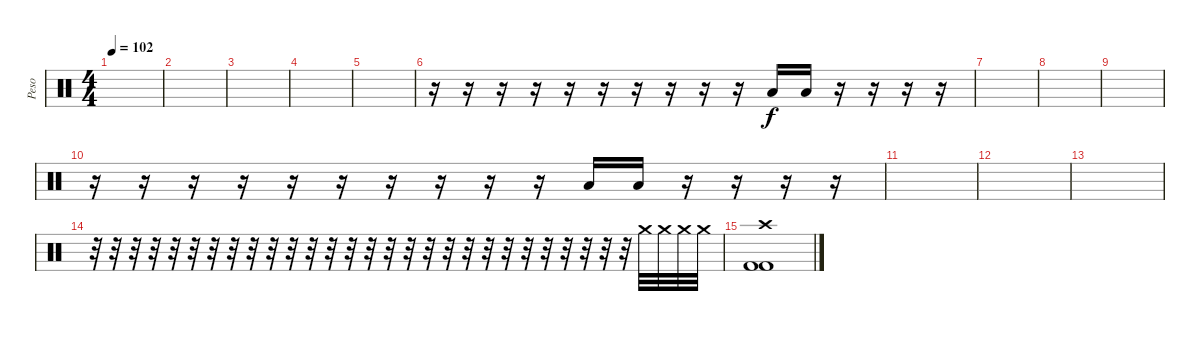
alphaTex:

\track ("Peso" "Peso") {instrument percussion}
\staff {score}
\articulation defaults
\ts (4 4)
\tempo 102
\clef neutral
\ks c
|
|
|
|
|
r.16 r.16 r.16 r.16 r.16 r.16 r.16 r.16 r.16 r.16 "Low Floor Tom (hit)".16{volume 11} "Low Floor Tom (hit)".16 r.16 r.16 r.16 r.16 |
|
|
|
r.16 r.16 r.16 r.16 r.16 r.16 r.16 r.16 r.16 r.16 "Low Floor Tom (hit)".16 "Low Floor Tom (hit)".16 r.16 r.16 r.16 r.16 |
|
|
|
r.32 r.32 r.32 r.32 r.32 r.32 r.32 r.32 r.32 r.32 r.32 r.32 r.32 r.32 r.32 r.32 r.32 r.32 r.32 r.32 r.32 r.32 r.32 r.32 r.32 r.32 r.32 r.32 "Crash medium (hit)".32{volume 8} "Crash medium (hit)".32{volume 10} "Crash medium (hit)".32{volume 12} "Crash medium (hit)".32{volume 14} |
("Crash high (hit)" "Kick (hit) 2" "Kick (hit) 2").1{volume 15}
